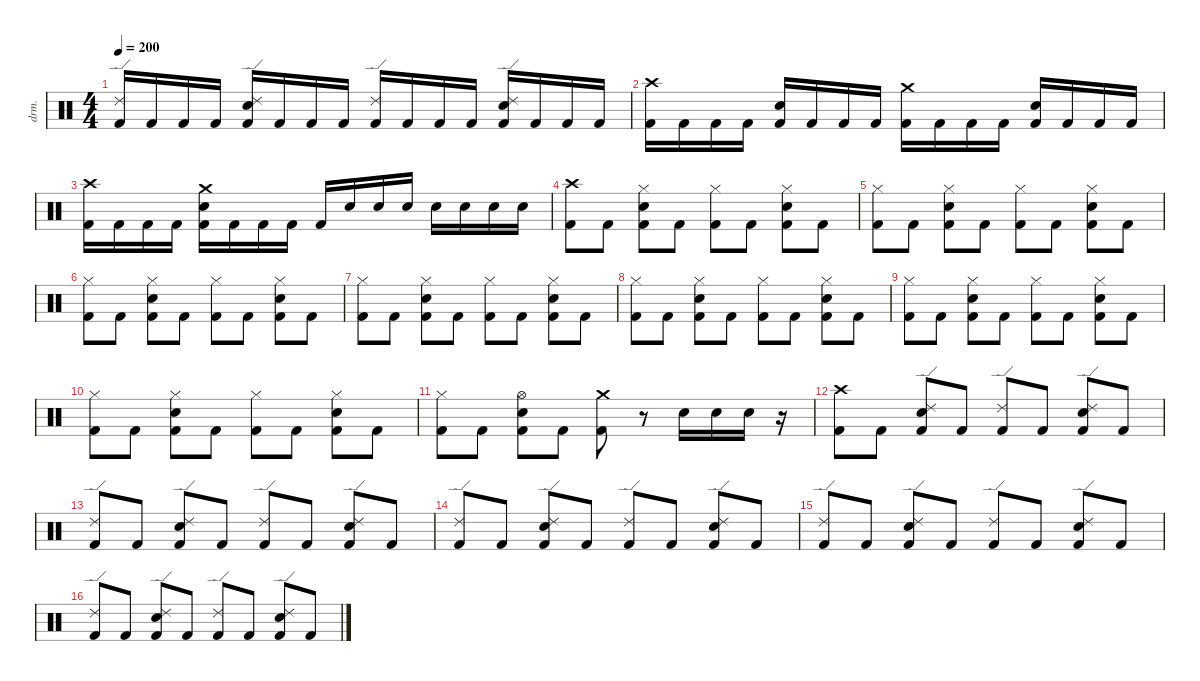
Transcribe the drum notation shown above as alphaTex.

\defaultSystemsLayout 4
\hideDynamics
\bracketExtendMode nobrackets
\track ("Drums" "drm.") {instrument percussion}
\staff {score}
\articulation defaults
\ts (4 4)
\tempo 200
\clef neutral
\ks c
("Ride (edge) 2" "Kick (hit) 2").16{dy f} "Kick (hit) 2".16 "Kick (hit) 2".16 "Kick (hit) 2".16 ("Ride (edge) 2" "Snare (hit) 2" "Kick (hit) 2").16 "Kick (hit) 2".16 "Kick (hit) 2".16 "Kick (hit) 2".16 ("Ride (edge) 2" "Kick (hit) 2").16 "Kick (hit) 2".16 "Kick (hit) 2".16 "Kick (hit) 2".16 ("Ride (edge) 2" "Snare (hit) 2" "Kick (hit) 2").16 "Kick (hit) 2".16 "Kick (hit) 2".16 "Kick (hit) 2".16 |
("Crash high (hit)" "Kick (hit) 2").16 "Kick (hit) 2".16 "Kick (hit) 2".16 "Kick (hit) 2".16 ("Snare (hit) 2" "Kick (hit) 2").16 "Kick (hit) 2".16 "Kick (hit) 2".16 "Kick (hit) 2".16 ("Crash medium (hit)" "Kick (hit) 2").16 "Kick (hit) 2".16 "Kick (hit) 2".16 "Kick (hit) 2".16 ("Snare (hit) 2" "Kick (hit) 2").16 "Kick (hit) 2".16 "Kick (hit) 2".16 "Kick (hit) 2".16 |
("Crash high (hit)" "Kick (hit) 2").16 "Kick (hit) 2".16 "Kick (hit) 2".16 "Kick (hit) 2".16 ("Crash medium (hit)" "Snare (hit) 2" "Kick (hit) 2").16 "Kick (hit) 2".16 "Kick (hit) 2".16 "Kick (hit) 2".16 "Kick (hit) 2".16 "Snare (hit) 2".16{dy fff} "Snare (hit) 2".16 "Snare (hit) 2".16 "Snare (hit) 2".16 "Snare (hit) 2".16 "Snare (hit) 2".16 "Snare (hit) 2".16 |
("Crash high (hit)" "Kick (hit) 2").8{dy f} "Kick (hit) 2".8 ("Hi-Hat (closed)" "Snare (hit) 2" "Kick (hit) 2").8 "Kick (hit) 2".8 ("Hi-Hat (closed)" "Kick (hit) 2").8 "Kick (hit) 2".8 ("Hi-Hat (closed)" "Snare (hit) 2" "Kick (hit) 2").8 "Kick (hit) 2".8 |
("Hi-Hat (closed)" "Kick (hit) 2").8 "Kick (hit) 2".8 ("Hi-Hat (closed)" "Snare (hit) 2" "Kick (hit) 2").8 "Kick (hit) 2".8 ("Hi-Hat (closed)" "Kick (hit) 2").8 "Kick (hit) 2".8 ("Hi-Hat (closed)" "Snare (hit) 2" "Kick (hit) 2").8 "Kick (hit) 2".8 |
("Hi-Hat (closed)" "Kick (hit) 2").8 "Kick (hit) 2".8 ("Hi-Hat (closed)" "Snare (hit) 2" "Kick (hit) 2").8 "Kick (hit) 2".8 ("Hi-Hat (closed)" "Kick (hit) 2").8 "Kick (hit) 2".8 ("Hi-Hat (closed)" "Snare (hit) 2" "Kick (hit) 2").8 "Kick (hit) 2".8 |
("Hi-Hat (closed)" "Kick (hit) 2").8 "Kick (hit) 2".8 ("Hi-Hat (closed)" "Snare (hit) 2" "Kick (hit) 2").8 "Kick (hit) 2".8 ("Hi-Hat (closed)" "Kick (hit) 2").8 "Kick (hit) 2".8 ("Hi-Hat (closed)" "Snare (hit) 2" "Kick (hit) 2").8 "Kick (hit) 2".8 |
("Hi-Hat (closed)" "Kick (hit) 2").8 "Kick (hit) 2".8 ("Hi-Hat (closed)" "Snare (hit) 2" "Kick (hit) 2").8 "Kick (hit) 2".8 ("Hi-Hat (closed)" "Kick (hit) 2").8 "Kick (hit) 2".8 ("Hi-Hat (closed)" "Snare (hit) 2" "Kick (hit) 2").8 "Kick (hit) 2".8 |
("Hi-Hat (closed)" "Kick (hit) 2").8 "Kick (hit) 2".8 ("Hi-Hat (closed)" "Snare (hit) 2" "Kick (hit) 2").8 "Kick (hit) 2".8 ("Hi-Hat (closed)" "Kick (hit) 2").8 "Kick (hit) 2".8 ("Hi-Hat (closed)" "Snare (hit) 2" "Kick (hit) 2").8 "Kick (hit) 2".8 |
("Hi-Hat (closed)" "Kick (hit) 2").8 "Kick (hit) 2".8 ("Hi-Hat (closed)" "Snare (hit) 2" "Kick (hit) 2").8 "Kick (hit) 2".8 ("Hi-Hat (closed)" "Kick (hit) 2").8 "Kick (hit) 2".8 ("Hi-Hat (closed)" "Snare (hit) 2" "Kick (hit) 2").8 "Kick (hit) 2".8 |
("Hi-Hat (closed)" "Kick (hit) 2").8 "Kick (hit) 2".8 ("Hi-Hat (open)" "Snare (hit) 2" "Kick (hit) 2").8 "Kick (hit) 2".8 ("Crash medium (hit)" "Kick (hit) 2").8{dy ff} r.8 "Snare (hit) 2".16{dy fff} "Snare (hit) 2".16 "Snare (hit) 2".16 r.16 |
("Crash high (hit)" "Kick (hit) 2").8{dy ff} "Kick (hit) 2".8{dy f} ("Ride (edge) 2" "Snare (hit) 2" "Kick (hit) 2").8 "Kick (hit) 2".8 ("Ride (edge) 2" "Kick (hit) 2").8 "Kick (hit) 2".8 ("Ride (edge) 2" "Snare (hit) 2" "Kick (hit) 2").8 "Kick (hit) 2".8 |
("Ride (edge) 2" "Kick (hit) 2").8 "Kick (hit) 2".8 ("Ride (edge) 2" "Snare (hit) 2" "Kick (hit) 2").8 "Kick (hit) 2".8 ("Ride (edge) 2" "Kick (hit) 2").8 "Kick (hit) 2".8 ("Ride (edge) 2" "Snare (hit) 2" "Kick (hit) 2").8 "Kick (hit) 2".8 |
("Ride (edge) 2" "Kick (hit) 2").8 "Kick (hit) 2".8 ("Ride (edge) 2" "Snare (hit) 2" "Kick (hit) 2").8 "Kick (hit) 2".8 ("Ride (edge) 2" "Kick (hit) 2").8 "Kick (hit) 2".8 ("Ride (edge) 2" "Snare (hit) 2" "Kick (hit) 2").8 "Kick (hit) 2".8 |
("Ride (edge) 2" "Kick (hit) 2").8 "Kick (hit) 2".8 ("Ride (edge) 2" "Snare (hit) 2" "Kick (hit) 2").8 "Kick (hit) 2".8 ("Ride (edge) 2" "Kick (hit) 2").8 "Kick (hit) 2".8 ("Ride (edge) 2" "Snare (hit) 2" "Kick (hit) 2").8 "Kick (hit) 2".8 |
("Ride (edge) 2" "Kick (hit) 2").8 "Kick (hit) 2".8 ("Ride (edge) 2" "Snare (hit) 2" "Kick (hit) 2").8 "Kick (hit) 2".8 ("Ride (edge) 2" "Kick (hit) 2").8 "Kick (hit) 2".8 ("Ride (edge) 2" "Snare (hit) 2" "Kick (hit) 2").8 "Kick (hit) 2".8
